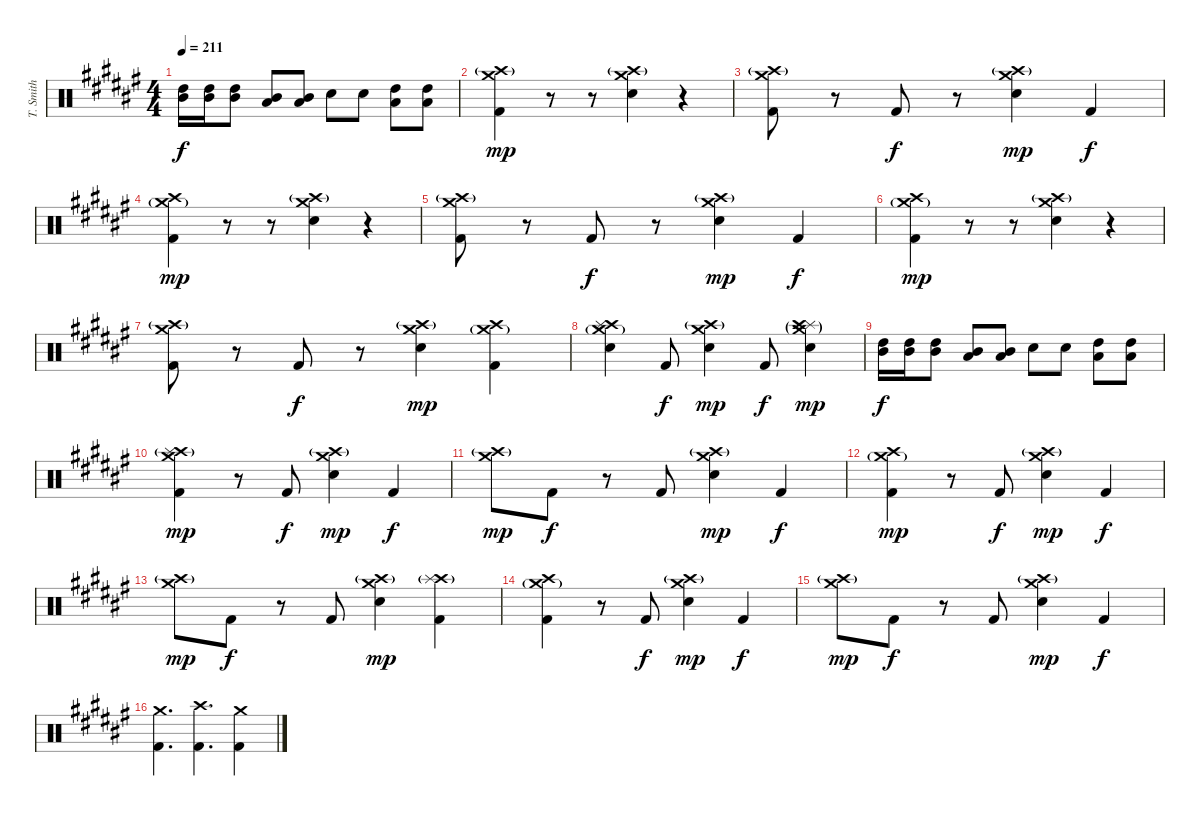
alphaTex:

\track ("T. Smith" "T. Smith") {instrument percussion}
\staff {score}
\articulation defaults
\ts (4 4)
\tempo 211
\clef neutral
\ks d#minor
("High Tom (hit)" "Mid Tom (hit)").16{dy f} ("High Tom (hit)" "Mid Tom (hit)").16 ("High Tom (hit)" "Mid Tom (hit)").8 ("Low Tom (hit)" "Mid Tom (hit)").8 ("Low Tom (hit)" "Mid Tom (hit)").8 "Electric Snare (hit)".8 "Electric Snare (hit)".8 ("Low Tom (hit)" "High Tom (hit)").8 ("Low Tom (hit)" "High Tom (hit)").8 |
("Crash medium (hit)" "Crash high (hit)"{g} "Kick (hit) 2").4{dy mp volume 13 balance 8} r.8 r.8 ("Crash medium (hit)" "Crash high (hit)"{g} "Electric Snare (hit)").4 r.4 |
("Crash medium (hit)" "Crash high (hit)"{g} "Kick (hit) 2").8 r.8 "Kick (hit) 2".8{dy f} r.8 ("Crash medium (hit)" "Crash high (hit)"{g} "Electric Snare (hit)").4{dy mp} "Kick (hit) 2".4{dy f} |
("Crash medium (hit)"{g} "Crash high (hit)" "Kick (hit) 2").4{dy mp} r.8 r.8 ("Crash medium (hit)" "Crash high (hit)"{g} "Electric Snare (hit)").4 r.4 |
("Crash medium (hit)" "Crash high (hit)"{g} "Kick (hit) 2").8 r.8 "Kick (hit) 2".8{dy f} r.8 ("Crash medium (hit)" "Crash high (hit)"{g} "Electric Snare (hit)").4{dy mp} "Kick (hit) 2".4{dy f} |
("Crash medium (hit)"{g} "Crash high (hit)" "Kick (hit) 2").4{dy mp} r.8 r.8 ("Crash medium (hit)" "Crash high (hit)"{g} "Electric Snare (hit)").4 r.4 |
("Crash medium (hit)" "Crash high (hit)"{g} "Kick (hit) 2").8 r.8 "Kick (hit) 2".8{dy f} r.8 ("Crash medium (hit)" "Crash high (hit)"{g} "Electric Snare (hit)").4{dy mp} ("Crash medium (hit)"{g} "Crash high (hit)" "Kick (hit) 2").4 |
("Crash medium (hit)"{g} "Crash high (hit)" "Splash (hit)" "Electric Snare (hit)").4 "Kick (hit) 2".8{dy f} ("Crash medium (hit)" "Crash high (hit)"{g} "Electric Snare (hit)").4{dy mp} "Kick (hit) 2".8{dy f} ("Splash (hit)" "Crash high (hit)"{g} "Crash medium (hit)"{g} "Electric Snare (hit)").4{dy mp} |
("High Tom (hit)" "Mid Tom (hit)").16{dy f} ("High Tom (hit)" "Mid Tom (hit)").16 ("High Tom (hit)" "Mid Tom (hit)").8 ("Low Tom (hit)" "Mid Tom (hit)").8 ("Low Tom (hit)" "Mid Tom (hit)").8 "Electric Snare (hit)".8 "Electric Snare (hit)".8 ("Low Tom (hit)" "High Tom (hit)").8 ("Low Tom (hit)" "High Tom (hit)").8 |
("Crash medium (hit)" "Crash high (hit)"{g} "Splash (hit)" "Kick (hit) 2").4{dy mp} r.8 "Kick (hit) 2".8{dy f} ("Crash medium (hit)" "Crash high (hit)"{g} "Electric Snare (hit)").4{dy mp} "Kick (hit) 2".4{dy f} |
("Crash medium (hit)" "Crash high (hit)"{g}).8{dy mp} "Kick (hit) 2".8{dy f} r.8 "Kick (hit) 2".8 ("Crash medium (hit)" "Crash high (hit)"{g} "Electric Snare (hit)").4{dy mp} "Kick (hit) 2".4{dy f} |
("Crash medium (hit)"{g} "Crash high (hit)" "Kick (hit) 2").4{dy mp} r.8 "Kick (hit) 2".8{dy f} ("Crash medium (hit)" "Crash high (hit)"{g} "Electric Snare (hit)").4{dy mp} "Kick (hit) 2".4{dy f} |
("Crash medium (hit)" "Crash high (hit)"{g}).8{dy mp} "Kick (hit) 2".8{dy f} r.8 "Kick (hit) 2".8 ("Crash medium (hit)" "Crash high (hit)"{g} "Electric Snare (hit)").4{dy mp} ("Crash high (hit)"{g} "Splash (hit)" "Kick (hit) 2").4 |
("Crash medium (hit)"{g} "Crash high (hit)" "Kick (hit) 2").4 r.8 "Kick (hit) 2".8{dy f} ("Crash medium (hit)" "Crash high (hit)"{g} "Electric Snare (hit)").4{dy mp} "Kick (hit) 2".4{dy f} |
("Crash medium (hit)" "Crash high (hit)"{g}).8{dy mp} "Kick (hit) 2".8{dy f} r.8 "Kick (hit) 2".8 ("Crash medium (hit)" "Crash high (hit)"{g} "Electric Snare (hit)").4{dy mp} "Kick (hit) 2".4{dy f} |
("Crash medium (hit)" "Kick (hit) 2").4{d} ("Crash high (hit)" "Kick (hit) 2").4{d} ("Crash medium (hit)" "Kick (hit) 2").4
